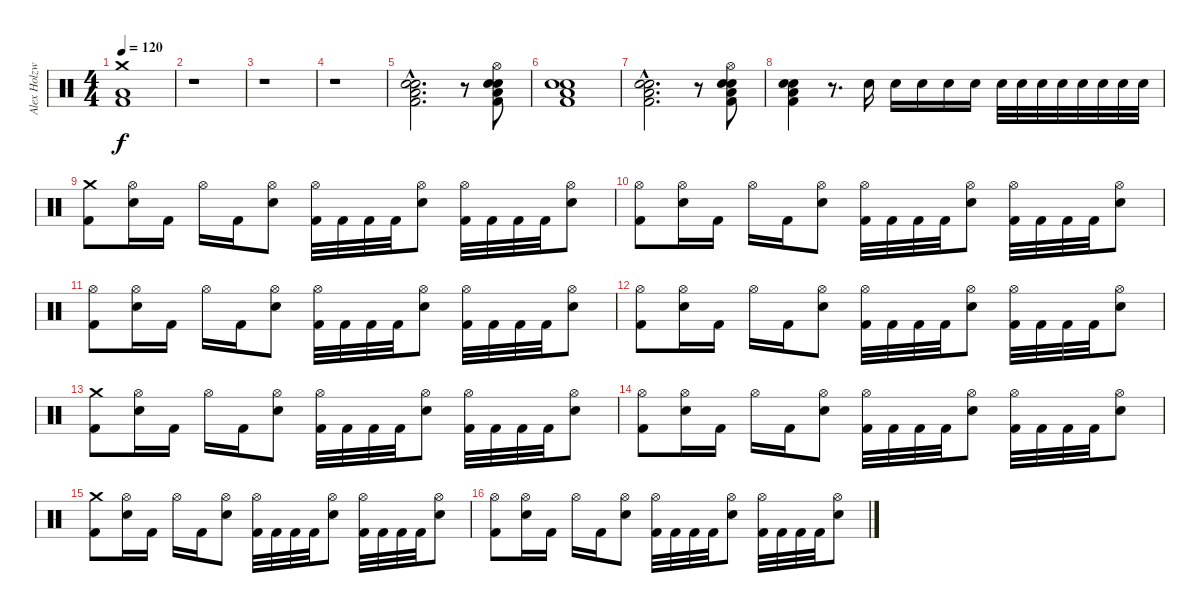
\track ("Alex Holzwarth - Drums" "Alex Holzw") {instrument percussion}
\staff {score}
\articulation defaults
\ts (4 4)
\tempo 120
\clef neutral
\ks c
("Crash medium (hit)" "Low Floor Tom (hit)" "Kick (hit) 2").1{dy f} |
r.1 |
r.1 |
r.1 |
("Snare (hit) 2"{hac} "Low Floor Tom (hit)"{hac} "Electric Snare (hit)"{hac} "Kick (hit) 2"{hac}).2{d} r.8 ("Snare (hit) 2" "Low Floor Tom (hit)" "Electric Snare (hit)" "Hi-Hat (open)" "Kick (hit) 2").8 |
("Snare (hit) 2" "Low Floor Tom (hit)" "Electric Snare (hit)" "Kick (hit) 2").1 |
("Snare (hit) 2"{hac} "Low Floor Tom (hit)"{hac} "Electric Snare (hit)"{hac} "Kick (hit) 2"{hac}).2{d} r.8 ("Snare (hit) 2" "Low Floor Tom (hit)" "Electric Snare (hit)" "Hi-Hat (open)" "Kick (hit) 2").8 |
("Snare (hit) 2" "Low Floor Tom (hit)" "Electric Snare (hit)" "Kick (hit) 2").4 r.8{d} "Electric Snare (hit)".16 "Electric Snare (hit)".16 "Electric Snare (hit)".16 "Electric Snare (hit)".16 "Electric Snare (hit)".16 "Electric Snare (hit)".32 "Electric Snare (hit)".32 "Electric Snare (hit)".32 "Electric Snare (hit)".32 "Electric Snare (hit)".32 "Electric Snare (hit)".32 "Electric Snare (hit)".32 "Electric Snare (hit)".32 |
("Crash medium (hit)" "Kick (hit) 2").8 ("Hi-Hat (open)" "Electric Snare (hit)").16 "Kick (hit) 2".16 "Hi-Hat (open)".16 "Kick (hit) 2".16 ("Hi-Hat (open)" "Electric Snare (hit)").8 ("Hi-Hat (open)" "Kick (hit) 2").32 "Kick (hit) 2".32 "Kick (hit) 2".32 "Kick (hit) 2".32 ("Hi-Hat (open)" "Electric Snare (hit)").8 ("Hi-Hat (open)" "Kick (hit) 2").32 "Kick (hit) 2".32 "Kick (hit) 2".32 "Kick (hit) 2".32 ("Hi-Hat (open)" "Electric Snare (hit)").8 |
("Hi-Hat (open)" "Kick (hit) 2").8 ("Hi-Hat (open)" "Electric Snare (hit)").16 "Kick (hit) 2".16 "Hi-Hat (open)".16 "Kick (hit) 2".16 ("Hi-Hat (open)" "Electric Snare (hit)").8 ("Hi-Hat (open)" "Kick (hit) 2").32 "Kick (hit) 2".32 "Kick (hit) 2".32 "Kick (hit) 2".32 ("Hi-Hat (open)" "Electric Snare (hit)").8 ("Hi-Hat (open)" "Kick (hit) 2").32 "Kick (hit) 2".32 "Kick (hit) 2".32 "Kick (hit) 2".32 ("Hi-Hat (open)" "Electric Snare (hit)").8 |
("Hi-Hat (open)" "Kick (hit) 2").8 ("Hi-Hat (open)" "Electric Snare (hit)").16 "Kick (hit) 2".16 "Hi-Hat (open)".16 "Kick (hit) 2".16 ("Hi-Hat (open)" "Electric Snare (hit)").8 ("Hi-Hat (open)" "Kick (hit) 2").32 "Kick (hit) 2".32 "Kick (hit) 2".32 "Kick (hit) 2".32 ("Hi-Hat (open)" "Electric Snare (hit)").8 ("Hi-Hat (open)" "Kick (hit) 2").32 "Kick (hit) 2".32 "Kick (hit) 2".32 "Kick (hit) 2".32 ("Hi-Hat (open)" "Electric Snare (hit)").8 |
("Hi-Hat (open)" "Kick (hit) 2").8 ("Hi-Hat (open)" "Electric Snare (hit)").16 "Kick (hit) 2".16 "Hi-Hat (open)".16 "Kick (hit) 2".16 ("Hi-Hat (open)" "Electric Snare (hit)").8 ("Hi-Hat (open)" "Kick (hit) 2").32 "Kick (hit) 2".32 "Kick (hit) 2".32 "Kick (hit) 2".32 ("Hi-Hat (open)" "Electric Snare (hit)").8 ("Hi-Hat (open)" "Kick (hit) 2").32 "Kick (hit) 2".32 "Kick (hit) 2".32 "Kick (hit) 2".32 ("Hi-Hat (open)" "Electric Snare (hit)").8 |
("Crash medium (hit)" "Kick (hit) 2").8 ("Hi-Hat (open)" "Electric Snare (hit)").16 "Kick (hit) 2".16 "Hi-Hat (open)".16 "Kick (hit) 2".16 ("Hi-Hat (open)" "Electric Snare (hit)").8 ("Hi-Hat (open)" "Kick (hit) 2").32 "Kick (hit) 2".32 "Kick (hit) 2".32 "Kick (hit) 2".32 ("Hi-Hat (open)" "Electric Snare (hit)").8 ("Hi-Hat (open)" "Kick (hit) 2").32 "Kick (hit) 2".32 "Kick (hit) 2".32 "Kick (hit) 2".32 ("Hi-Hat (open)" "Electric Snare (hit)").8 |
("Hi-Hat (open)" "Kick (hit) 2").8 ("Hi-Hat (open)" "Electric Snare (hit)").16 "Kick (hit) 2".16 "Hi-Hat (open)".16 "Kick (hit) 2".16 ("Hi-Hat (open)" "Electric Snare (hit)").8 ("Hi-Hat (open)" "Kick (hit) 2").32 "Kick (hit) 2".32 "Kick (hit) 2".32 "Kick (hit) 2".32 ("Hi-Hat (open)" "Electric Snare (hit)").8 ("Hi-Hat (open)" "Kick (hit) 2").32 "Kick (hit) 2".32 "Kick (hit) 2".32 "Kick (hit) 2".32 ("Hi-Hat (open)" "Electric Snare (hit)").8 |
("Crash medium (hit)" "Kick (hit) 2").8 ("Hi-Hat (open)" "Electric Snare (hit)").16 "Kick (hit) 2".16 "Hi-Hat (open)".16 "Kick (hit) 2".16 ("Hi-Hat (open)" "Electric Snare (hit)").8 ("Hi-Hat (open)" "Kick (hit) 2").32 "Kick (hit) 2".32 "Kick (hit) 2".32 "Kick (hit) 2".32 ("Hi-Hat (open)" "Electric Snare (hit)").8 ("Hi-Hat (open)" "Kick (hit) 2").32 "Kick (hit) 2".32 "Kick (hit) 2".32 "Kick (hit) 2".32 ("Hi-Hat (open)" "Electric Snare (hit)").8 |
("Hi-Hat (open)" "Kick (hit) 2").8 ("Hi-Hat (open)" "Electric Snare (hit)").16 "Kick (hit) 2".16 "Hi-Hat (open)".16 "Kick (hit) 2".16 ("Hi-Hat (open)" "Electric Snare (hit)").8 ("Hi-Hat (open)" "Kick (hit) 2").32 "Kick (hit) 2".32 "Kick (hit) 2".32 "Kick (hit) 2".32 ("Hi-Hat (open)" "Electric Snare (hit)").8 ("Hi-Hat (open)" "Kick (hit) 2").32 "Kick (hit) 2".32 "Kick (hit) 2".32 "Kick (hit) 2".32 ("Hi-Hat (open)" "Electric Snare (hit)").8
